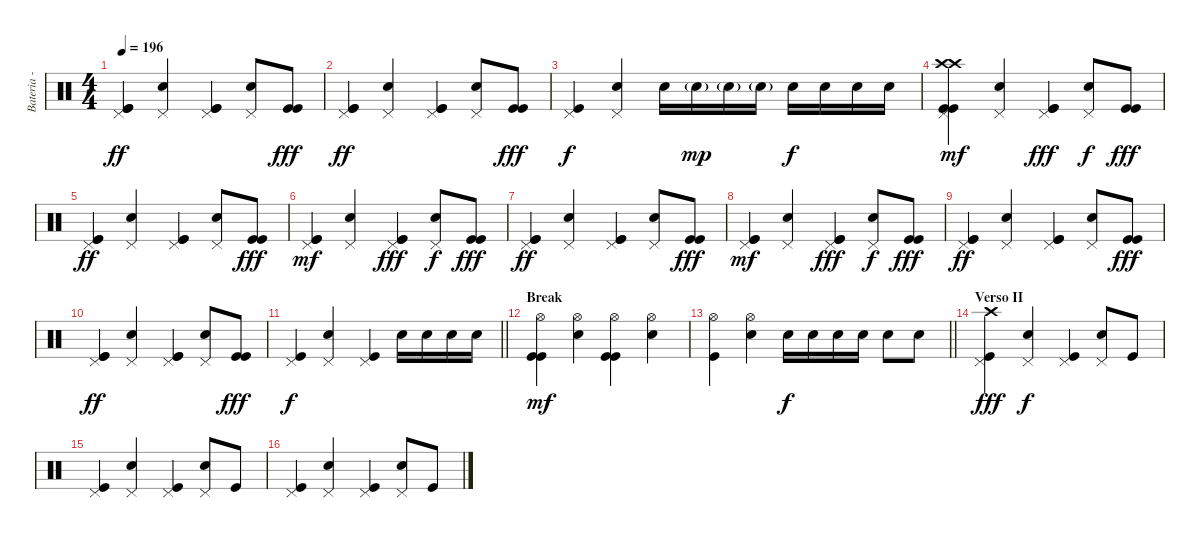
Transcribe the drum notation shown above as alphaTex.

\track ("Bateria - Larzon" "Bateria - ") {instrument percussion}
\staff {score}
\articulation defaults
\ts (4 4)
\tempo 196
\clef neutral
\ks c
("Kick (hit)" "Kick (hit)" "Pedal Hi-Hat (hit)").4{dy ff} ("Electric Snare (hit)" "Pedal Hi-Hat (hit)").4 ("Kick (hit)" "Kick (hit)" "Pedal Hi-Hat (hit)").4 ("Electric Snare (hit)" "Pedal Hi-Hat (hit)").8 ("Kick (hit)" "Kick (hit)").8{dy fff} |
("Kick (hit)" "Kick (hit)" "Pedal Hi-Hat (hit)").4{dy ff} ("Electric Snare (hit)" "Pedal Hi-Hat (hit)").4 ("Kick (hit)" "Kick (hit)" "Pedal Hi-Hat (hit)").4 ("Electric Snare (hit)" "Pedal Hi-Hat (hit)").8 ("Kick (hit)" "Kick (hit)").8{dy fff} |
("Kick (hit)" "Pedal Hi-Hat (hit)").4{dy f} ("Electric Snare (hit)" "Pedal Hi-Hat (hit)").4 "Electric Snare (hit)".16 "Electric Snare (hit)"{g}.16{dy mp} "Electric Snare (hit)"{g}.16 "Electric Snare (hit)"{g}.16 "Electric Snare (hit)".16{dy f} "Electric Snare (hit)".16 "Electric Snare (hit)".16 "Electric Snare (hit)".16 |
("Kick (hit)" "Kick (hit)" "Crash high (hit)" "Crash high (hit)" "Pedal Hi-Hat (hit)").4{dy mf} ("Electric Snare (hit)" "Pedal Hi-Hat (hit)").4 ("Kick (hit)" "Kick (hit)" "Pedal Hi-Hat (hit)").4{dy fff} ("Electric Snare (hit)" "Pedal Hi-Hat (hit)").8{dy f} ("Kick (hit)" "Kick (hit)").8{dy fff} |
("Kick (hit)" "Kick (hit)" "Pedal Hi-Hat (hit)").4{dy ff} ("Electric Snare (hit)" "Pedal Hi-Hat (hit)").4 ("Kick (hit)" "Kick (hit)" "Pedal Hi-Hat (hit)").4 ("Electric Snare (hit)" "Pedal Hi-Hat (hit)").8 ("Kick (hit)" "Kick (hit)").8{dy fff} |
("Kick (hit)" "Kick (hit)" "Pedal Hi-Hat (hit)").4{dy mf} ("Electric Snare (hit)" "Pedal Hi-Hat (hit)").4 ("Kick (hit)" "Kick (hit)" "Pedal Hi-Hat (hit)").4{dy fff} ("Electric Snare (hit)" "Pedal Hi-Hat (hit)").8{dy f} ("Kick (hit)" "Kick (hit)").8{dy fff} |
("Kick (hit)" "Kick (hit)" "Pedal Hi-Hat (hit)").4{dy ff} ("Electric Snare (hit)" "Pedal Hi-Hat (hit)").4 ("Kick (hit)" "Kick (hit)" "Pedal Hi-Hat (hit)").4 ("Electric Snare (hit)" "Pedal Hi-Hat (hit)").8 ("Kick (hit)" "Kick (hit)").8{dy fff} |
("Kick (hit)" "Kick (hit)" "Pedal Hi-Hat (hit)").4{dy mf} ("Electric Snare (hit)" "Pedal Hi-Hat (hit)").4 ("Kick (hit)" "Kick (hit)" "Pedal Hi-Hat (hit)").4{dy fff} ("Electric Snare (hit)" "Pedal Hi-Hat (hit)").8{dy f} ("Kick (hit)" "Kick (hit)").8{dy fff} |
("Kick (hit)" "Kick (hit)" "Pedal Hi-Hat (hit)").4{dy ff} ("Electric Snare (hit)" "Pedal Hi-Hat (hit)").4 ("Kick (hit)" "Kick (hit)" "Pedal Hi-Hat (hit)").4 ("Electric Snare (hit)" "Pedal Hi-Hat (hit)").8 ("Kick (hit)" "Kick (hit)").8{dy fff} |
("Kick (hit)" "Kick (hit)" "Pedal Hi-Hat (hit)").4{dy ff} ("Electric Snare (hit)" "Pedal Hi-Hat (hit)").4 ("Kick (hit)" "Kick (hit)" "Pedal Hi-Hat (hit)").4 ("Electric Snare (hit)" "Pedal Hi-Hat (hit)").8 ("Kick (hit)" "Kick (hit)").8{dy fff} |
\barLineRight lightlight
("Kick (hit)" "Pedal Hi-Hat (hit)").4{dy f} ("Electric Snare (hit)" "Pedal Hi-Hat (hit)").4 ("Kick (hit)" "Pedal Hi-Hat (hit)").4 "Electric Snare (hit)".16 "Electric Snare (hit)".16 "Electric Snare (hit)".16 "Electric Snare (hit)".16 |
\section ("" "Break")
("Kick (hit)" "Kick (hit)" "Hi-Hat (open)").4{dy mf} ("Electric Snare (hit)" "Hi-Hat (open)").4 ("Kick (hit)" "Kick (hit)" "Hi-Hat (open)").4 ("Electric Snare (hit)" "Hi-Hat (open)").4 |
\barLineRight lightlight
("Kick (hit)" "Hi-Hat (open)").4 ("Electric Snare (hit)" "Hi-Hat (open)").4 "Electric Snare (hit)".16{dy f} "Electric Snare (hit)".16 "Electric Snare (hit)".16 "Electric Snare (hit)".16 "Electric Snare (hit)".8 "Electric Snare (hit)".8 |
\section ("" "Verso II")
("Kick (hit)" "Crash high (hit)" "Pedal Hi-Hat (hit)").4{dy fff} ("Electric Snare (hit)" "Pedal Hi-Hat (hit)").4{dy f} ("Kick (hit)" "Pedal Hi-Hat (hit)").4 ("Electric Snare (hit)" "Pedal Hi-Hat (hit)").8 "Kick (hit)".8 |
("Kick (hit)" "Pedal Hi-Hat (hit)").4 ("Electric Snare (hit)" "Pedal Hi-Hat (hit)").4 ("Kick (hit)" "Pedal Hi-Hat (hit)").4 ("Electric Snare (hit)" "Pedal Hi-Hat (hit)").8 "Kick (hit)".8 |
("Kick (hit)" "Pedal Hi-Hat (hit)").4 ("Electric Snare (hit)" "Pedal Hi-Hat (hit)").4 ("Kick (hit)" "Pedal Hi-Hat (hit)").4 ("Electric Snare (hit)" "Pedal Hi-Hat (hit)").8 "Kick (hit)".8
